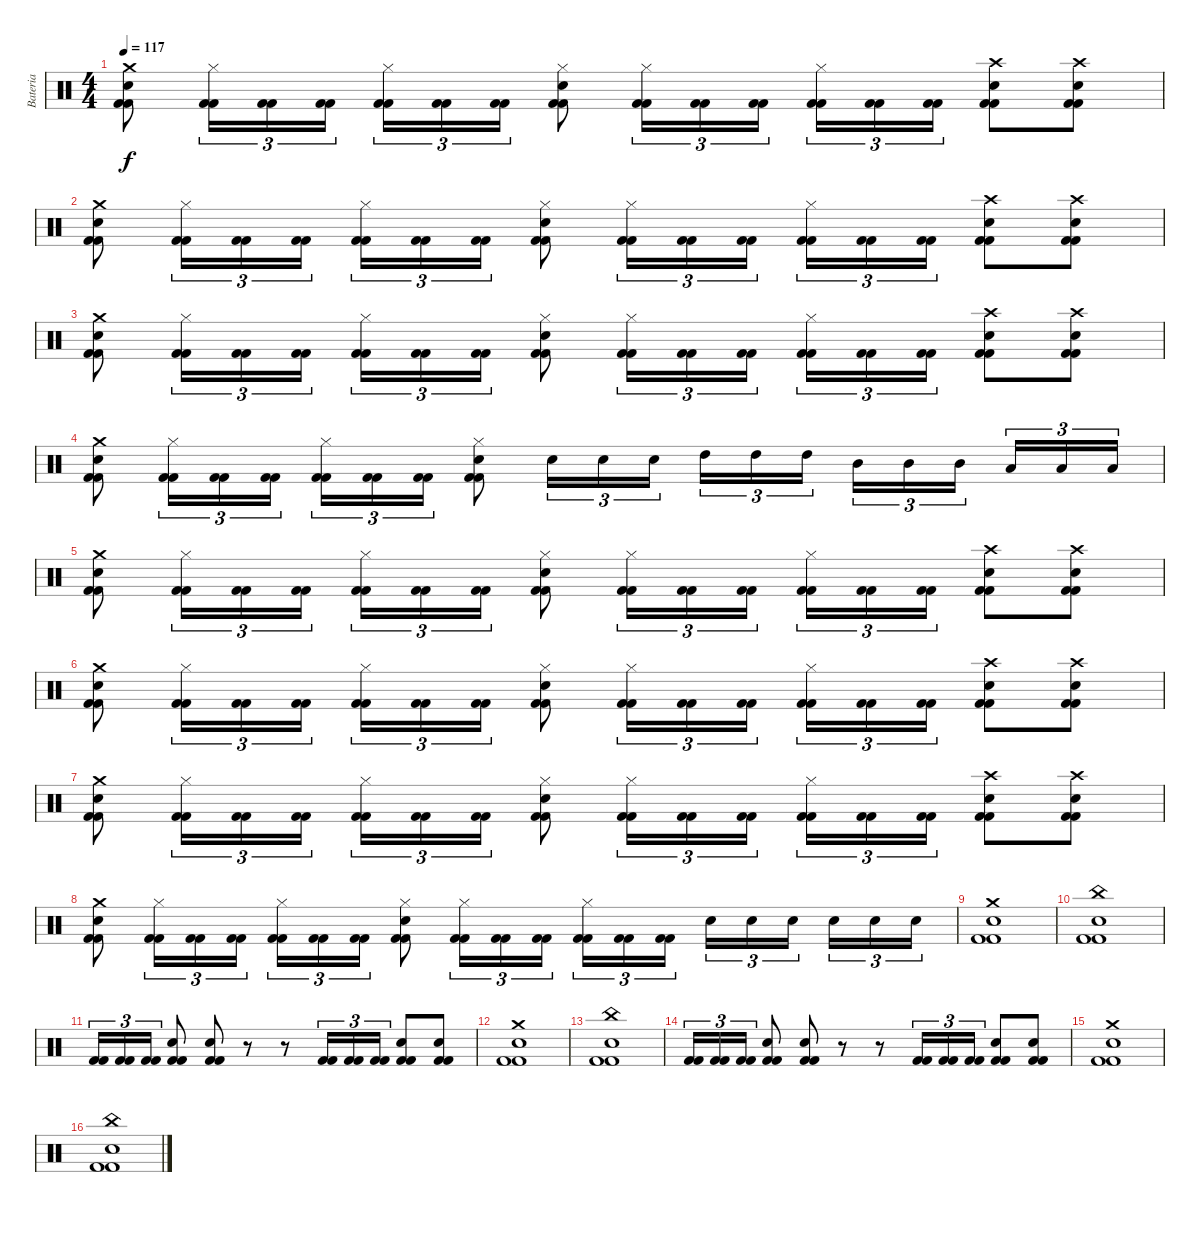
\track ("Bateria" "Bateria") {instrument percussion}
\staff {score}
\articulation defaults
\ts (4 4)
\tempo 117
\clef neutral
\ks c
("Kick (hit) 2" "Kick (hit) 2" "Snare (hit) 2" "Crash medium (hit)").8{dy f} ("Kick (hit) 2" "Kick (hit) 2" "Hi-Hat (closed)").16{tu (3 2)} ("Kick (hit) 2" "Kick (hit) 2").16{tu (3 2)} ("Kick (hit) 2" "Kick (hit) 2").16{tu (3 2)} ("Kick (hit) 2" "Kick (hit) 2" "Hi-Hat (closed)").16{tu (3 2)} ("Kick (hit) 2" "Kick (hit) 2").16{tu (3 2)} ("Kick (hit) 2" "Kick (hit) 2").16{tu (3 2)} ("Kick (hit) 2" "Kick (hit) 2" "Snare (hit) 2" "Hi-Hat (closed)").8 ("Kick (hit) 2" "Kick (hit) 2" "Hi-Hat (closed)").16{tu (3 2)} ("Kick (hit) 2" "Kick (hit) 2").16{tu (3 2)} ("Kick (hit) 2" "Kick (hit) 2").16{tu (3 2)} ("Kick (hit) 2" "Kick (hit) 2" "Hi-Hat (closed)").16{tu (3 2)} ("Kick (hit) 2" "Kick (hit) 2").16{tu (3 2)} ("Kick (hit) 2" "Kick (hit) 2").16{tu (3 2)} ("Kick (hit) 2" "Kick (hit) 2" "Snare (hit) 2" "Crash high (hit)").8 ("Kick (hit) 2" "Kick (hit) 2" "Snare (hit) 2" "Crash high (hit)").8 |
("Kick (hit) 2" "Kick (hit) 2" "Snare (hit) 2" "Crash medium (hit)").8 ("Kick (hit) 2" "Kick (hit) 2" "Hi-Hat (closed)").16{tu (3 2)} ("Kick (hit) 2" "Kick (hit) 2").16{tu (3 2)} ("Kick (hit) 2" "Kick (hit) 2").16{tu (3 2)} ("Kick (hit) 2" "Kick (hit) 2" "Hi-Hat (closed)").16{tu (3 2)} ("Kick (hit) 2" "Kick (hit) 2").16{tu (3 2)} ("Kick (hit) 2" "Kick (hit) 2").16{tu (3 2)} ("Kick (hit) 2" "Kick (hit) 2" "Snare (hit) 2" "Hi-Hat (closed)").8 ("Kick (hit) 2" "Kick (hit) 2" "Hi-Hat (closed)").16{tu (3 2)} ("Kick (hit) 2" "Kick (hit) 2").16{tu (3 2)} ("Kick (hit) 2" "Kick (hit) 2").16{tu (3 2)} ("Kick (hit) 2" "Kick (hit) 2" "Hi-Hat (closed)").16{tu (3 2)} ("Kick (hit) 2" "Kick (hit) 2").16{tu (3 2)} ("Kick (hit) 2" "Kick (hit) 2").16{tu (3 2)} ("Kick (hit) 2" "Kick (hit) 2" "Snare (hit) 2" "Crash high (hit)").8 ("Kick (hit) 2" "Kick (hit) 2" "Snare (hit) 2" "Crash high (hit)").8 |
("Kick (hit) 2" "Kick (hit) 2" "Snare (hit) 2" "Crash medium (hit)").8 ("Kick (hit) 2" "Kick (hit) 2" "Hi-Hat (closed)").16{tu (3 2)} ("Kick (hit) 2" "Kick (hit) 2").16{tu (3 2)} ("Kick (hit) 2" "Kick (hit) 2").16{tu (3 2)} ("Kick (hit) 2" "Kick (hit) 2" "Hi-Hat (closed)").16{tu (3 2)} ("Kick (hit) 2" "Kick (hit) 2").16{tu (3 2)} ("Kick (hit) 2" "Kick (hit) 2").16{tu (3 2)} ("Kick (hit) 2" "Kick (hit) 2" "Snare (hit) 2" "Hi-Hat (closed)").8 ("Kick (hit) 2" "Kick (hit) 2" "Hi-Hat (closed)").16{tu (3 2)} ("Kick (hit) 2" "Kick (hit) 2").16{tu (3 2)} ("Kick (hit) 2" "Kick (hit) 2").16{tu (3 2)} ("Kick (hit) 2" "Kick (hit) 2" "Hi-Hat (closed)").16{tu (3 2)} ("Kick (hit) 2" "Kick (hit) 2").16{tu (3 2)} ("Kick (hit) 2" "Kick (hit) 2").16{tu (3 2)} ("Kick (hit) 2" "Kick (hit) 2" "Snare (hit) 2" "Crash high (hit)").8 ("Kick (hit) 2" "Kick (hit) 2" "Snare (hit) 2" "Crash high (hit)").8 |
("Kick (hit) 2" "Kick (hit) 2" "Snare (hit) 2" "Crash medium (hit)").8 ("Kick (hit) 2" "Kick (hit) 2" "Hi-Hat (closed)").16{tu (3 2)} ("Kick (hit) 2" "Kick (hit) 2").16{tu (3 2)} ("Kick (hit) 2" "Kick (hit) 2").16{tu (3 2)} ("Kick (hit) 2" "Kick (hit) 2" "Hi-Hat (closed)").16{tu (3 2)} ("Kick (hit) 2" "Kick (hit) 2").16{tu (3 2)} ("Kick (hit) 2" "Kick (hit) 2").16{tu (3 2)} ("Kick (hit) 2" "Kick (hit) 2" "Snare (hit) 2" "Hi-Hat (closed)").8 "Snare (hit) 2".16{tu (3 2)} "Snare (hit) 2".16{tu (3 2)} "Snare (hit) 2".16{tu (3 2)} "High Tom (hit)".16{tu (3 2)} "High Tom (hit)".16{tu (3 2)} "High Tom (hit)".16{tu (3 2)} "Mid Tom (hit)".16{tu (3 2)} "Mid Tom (hit)".16{tu (3 2)} "Mid Tom (hit)".16{tu (3 2)} "Low Tom (hit)".16{tu (3 2)} "Low Tom (hit)".16{tu (3 2)} "Low Tom (hit)".16{tu (3 2)} |
("Kick (hit) 2" "Kick (hit) 2" "Snare (hit) 2" "Crash medium (hit)").8 ("Kick (hit) 2" "Kick (hit) 2" "Hi-Hat (closed)").16{tu (3 2)} ("Kick (hit) 2" "Kick (hit) 2").16{tu (3 2)} ("Kick (hit) 2" "Kick (hit) 2").16{tu (3 2)} ("Kick (hit) 2" "Kick (hit) 2" "Hi-Hat (closed)").16{tu (3 2)} ("Kick (hit) 2" "Kick (hit) 2").16{tu (3 2)} ("Kick (hit) 2" "Kick (hit) 2").16{tu (3 2)} ("Kick (hit) 2" "Kick (hit) 2" "Snare (hit) 2" "Hi-Hat (closed)").8 ("Kick (hit) 2" "Kick (hit) 2" "Hi-Hat (closed)").16{tu (3 2)} ("Kick (hit) 2" "Kick (hit) 2").16{tu (3 2)} ("Kick (hit) 2" "Kick (hit) 2").16{tu (3 2)} ("Kick (hit) 2" "Kick (hit) 2" "Hi-Hat (closed)").16{tu (3 2)} ("Kick (hit) 2" "Kick (hit) 2").16{tu (3 2)} ("Kick (hit) 2" "Kick (hit) 2").16{tu (3 2)} ("Kick (hit) 2" "Kick (hit) 2" "Snare (hit) 2" "Crash high (hit)").8 ("Kick (hit) 2" "Kick (hit) 2" "Snare (hit) 2" "Crash high (hit)").8 |
("Kick (hit) 2" "Kick (hit) 2" "Snare (hit) 2" "Crash medium (hit)").8 ("Kick (hit) 2" "Kick (hit) 2" "Hi-Hat (closed)").16{tu (3 2)} ("Kick (hit) 2" "Kick (hit) 2").16{tu (3 2)} ("Kick (hit) 2" "Kick (hit) 2").16{tu (3 2)} ("Kick (hit) 2" "Kick (hit) 2" "Hi-Hat (closed)").16{tu (3 2)} ("Kick (hit) 2" "Kick (hit) 2").16{tu (3 2)} ("Kick (hit) 2" "Kick (hit) 2").16{tu (3 2)} ("Kick (hit) 2" "Kick (hit) 2" "Snare (hit) 2" "Hi-Hat (closed)").8 ("Kick (hit) 2" "Kick (hit) 2" "Hi-Hat (closed)").16{tu (3 2)} ("Kick (hit) 2" "Kick (hit) 2").16{tu (3 2)} ("Kick (hit) 2" "Kick (hit) 2").16{tu (3 2)} ("Kick (hit) 2" "Kick (hit) 2" "Hi-Hat (closed)").16{tu (3 2)} ("Kick (hit) 2" "Kick (hit) 2").16{tu (3 2)} ("Kick (hit) 2" "Kick (hit) 2").16{tu (3 2)} ("Kick (hit) 2" "Kick (hit) 2" "Snare (hit) 2" "Crash high (hit)").8 ("Kick (hit) 2" "Kick (hit) 2" "Snare (hit) 2" "Crash high (hit)").8 |
("Kick (hit) 2" "Kick (hit) 2" "Snare (hit) 2" "Crash medium (hit)").8 ("Kick (hit) 2" "Kick (hit) 2" "Hi-Hat (closed)").16{tu (3 2)} ("Kick (hit) 2" "Kick (hit) 2").16{tu (3 2)} ("Kick (hit) 2" "Kick (hit) 2").16{tu (3 2)} ("Kick (hit) 2" "Kick (hit) 2" "Hi-Hat (closed)").16{tu (3 2)} ("Kick (hit) 2" "Kick (hit) 2").16{tu (3 2)} ("Kick (hit) 2" "Kick (hit) 2").16{tu (3 2)} ("Kick (hit) 2" "Kick (hit) 2" "Snare (hit) 2" "Hi-Hat (closed)").8 ("Kick (hit) 2" "Kick (hit) 2" "Hi-Hat (closed)").16{tu (3 2)} ("Kick (hit) 2" "Kick (hit) 2").16{tu (3 2)} ("Kick (hit) 2" "Kick (hit) 2").16{tu (3 2)} ("Kick (hit) 2" "Kick (hit) 2" "Hi-Hat (closed)").16{tu (3 2)} ("Kick (hit) 2" "Kick (hit) 2").16{tu (3 2)} ("Kick (hit) 2" "Kick (hit) 2").16{tu (3 2)} ("Kick (hit) 2" "Kick (hit) 2" "Snare (hit) 2" "Crash high (hit)").8 ("Kick (hit) 2" "Kick (hit) 2" "Snare (hit) 2" "Crash high (hit)").8 |
("Kick (hit) 2" "Kick (hit) 2" "Snare (hit) 2" "Crash medium (hit)").8 ("Kick (hit) 2" "Kick (hit) 2" "Hi-Hat (closed)").16{tu (3 2)} ("Kick (hit) 2" "Kick (hit) 2").16{tu (3 2)} ("Kick (hit) 2" "Kick (hit) 2").16{tu (3 2)} ("Kick (hit) 2" "Kick (hit) 2" "Hi-Hat (closed)").16{tu (3 2)} ("Kick (hit) 2" "Kick (hit) 2").16{tu (3 2)} ("Kick (hit) 2" "Kick (hit) 2").16{tu (3 2)} ("Kick (hit) 2" "Kick (hit) 2" "Snare (hit) 2" "Hi-Hat (closed)").8 ("Kick (hit) 2" "Kick (hit) 2" "Hi-Hat (closed)").16{tu (3 2)} ("Kick (hit) 2" "Kick (hit) 2").16{tu (3 2)} ("Kick (hit) 2" "Kick (hit) 2").16{tu (3 2)} ("Kick (hit) 2" "Kick (hit) 2" "Hi-Hat (closed)").16{tu (3 2)} ("Kick (hit) 2" "Kick (hit) 2").16{tu (3 2)} ("Kick (hit) 2" "Kick (hit) 2").16{tu (3 2)} "Snare (hit) 2".16{tu (3 2)} "Snare (hit) 2".16{tu (3 2)} "Snare (hit) 2".16{tu (3 2)} "Snare (hit) 2".16{tu (3 2)} "Snare (hit) 2".16{tu (3 2)} "Snare (hit) 2".16{tu (3 2)} |
("Kick (hit) 2" "Kick (hit) 2" "Snare (hit) 2" "Crash medium (hit)").1 |
("Kick (hit) 2" "Kick (hit) 2" "Snare (hit) 2" "China (hit)").1 |
("Kick (hit) 2" "Kick (hit) 2").16{tu (3 2)} ("Kick (hit) 2" "Kick (hit) 2").16{tu (3 2)} ("Kick (hit) 2" "Kick (hit) 2").16{tu (3 2)} ("Kick (hit) 2" "Kick (hit) 2" "Snare (hit) 2").8 ("Kick (hit) 2" "Kick (hit) 2" "Snare (hit) 2").8 r.8 r.8 ("Kick (hit) 2" "Kick (hit) 2").16{tu (3 2)} ("Kick (hit) 2" "Kick (hit) 2").16{tu (3 2)} ("Kick (hit) 2" "Kick (hit) 2").16{tu (3 2)} ("Kick (hit) 2" "Kick (hit) 2" "Snare (hit) 2").8 ("Kick (hit) 2" "Kick (hit) 2" "Snare (hit) 2").8 |
("Kick (hit) 2" "Kick (hit) 2" "Snare (hit) 2" "Crash medium (hit)").1 |
("Kick (hit) 2" "Kick (hit) 2" "Snare (hit) 2" "China (hit)").1 |
("Kick (hit) 2" "Kick (hit) 2").16{tu (3 2)} ("Kick (hit) 2" "Kick (hit) 2").16{tu (3 2)} ("Kick (hit) 2" "Kick (hit) 2").16{tu (3 2)} ("Kick (hit) 2" "Kick (hit) 2" "Snare (hit) 2").8 ("Kick (hit) 2" "Kick (hit) 2" "Snare (hit) 2").8 r.8 r.8 ("Kick (hit) 2" "Kick (hit) 2").16{tu (3 2)} ("Kick (hit) 2" "Kick (hit) 2").16{tu (3 2)} ("Kick (hit) 2" "Kick (hit) 2").16{tu (3 2)} ("Kick (hit) 2" "Kick (hit) 2" "Snare (hit) 2").8 ("Kick (hit) 2" "Kick (hit) 2" "Snare (hit) 2").8 |
("Kick (hit) 2" "Kick (hit) 2" "Snare (hit) 2" "Crash medium (hit)").1 |
("Kick (hit) 2" "Kick (hit) 2" "Snare (hit) 2" "China (hit)").1
